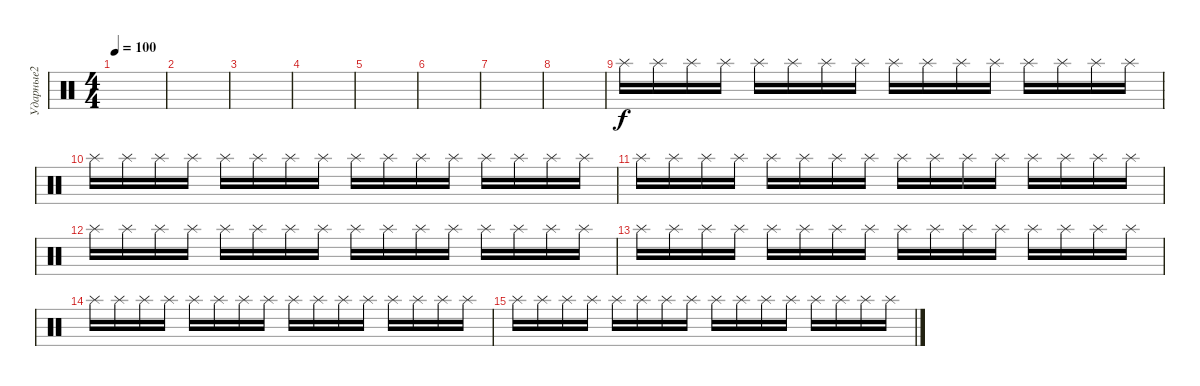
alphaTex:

\track ("Ударные2" "Ударные2") {instrument percussion}
\staff {score}
\articulation defaults
\ts (4 4)
\tempo 100
\clef neutral
\ks c
|
|
|
|
|
|
|
|
"Splash (hit)".16 "Splash (hit)".16 "Splash (hit)".16 "Splash (hit)".16 "Splash (hit)".16 "Splash (hit)".16 "Splash (hit)".16 "Splash (hit)".16 "Splash (hit)".16 "Splash (hit)".16 "Splash (hit)".16 "Splash (hit)".16 "Splash (hit)".16 "Splash (hit)".16 "Splash (hit)".16 "Splash (hit)".16 |
"Splash (hit)".16 "Splash (hit)".16 "Splash (hit)".16 "Splash (hit)".16 "Splash (hit)".16 "Splash (hit)".16 "Splash (hit)".16 "Splash (hit)".16 "Splash (hit)".16 "Splash (hit)".16 "Splash (hit)".16 "Splash (hit)".16 "Splash (hit)".16 "Splash (hit)".16 "Splash (hit)".16 "Splash (hit)".16 |
"Splash (hit)".16 "Splash (hit)".16 "Splash (hit)".16 "Splash (hit)".16 "Splash (hit)".16 "Splash (hit)".16 "Splash (hit)".16 "Splash (hit)".16 "Splash (hit)".16 "Splash (hit)".16 "Splash (hit)".16 "Splash (hit)".16 "Splash (hit)".16 "Splash (hit)".16 "Splash (hit)".16 "Splash (hit)".16 |
"Splash (hit)".16 "Splash (hit)".16 "Splash (hit)".16 "Splash (hit)".16 "Splash (hit)".16 "Splash (hit)".16 "Splash (hit)".16 "Splash (hit)".16 "Splash (hit)".16 "Splash (hit)".16 "Splash (hit)".16 "Splash (hit)".16 "Splash (hit)".16 "Splash (hit)".16 "Splash (hit)".16 "Splash (hit)".16 |
"Splash (hit)".16 "Splash (hit)".16 "Splash (hit)".16 "Splash (hit)".16 "Splash (hit)".16 "Splash (hit)".16 "Splash (hit)".16 "Splash (hit)".16 "Splash (hit)".16 "Splash (hit)".16 "Splash (hit)".16 "Splash (hit)".16 "Splash (hit)".16 "Splash (hit)".16 "Splash (hit)".16 "Splash (hit)".16 |
"Splash (hit)".16 "Splash (hit)".16 "Splash (hit)".16 "Splash (hit)".16 "Splash (hit)".16 "Splash (hit)".16 "Splash (hit)".16 "Splash (hit)".16 "Splash (hit)".16 "Splash (hit)".16 "Splash (hit)".16 "Splash (hit)".16 "Splash (hit)".16 "Splash (hit)".16 "Splash (hit)".16 "Splash (hit)".16 |
"Splash (hit)".16 "Splash (hit)".16 "Splash (hit)".16 "Splash (hit)".16 "Splash (hit)".16 "Splash (hit)".16 "Splash (hit)".16 "Splash (hit)".16 "Splash (hit)".16 "Splash (hit)".16 "Splash (hit)".16 "Splash (hit)".16 "Splash (hit)".16 "Splash (hit)".16 "Splash (hit)".16 "Splash (hit)".16
